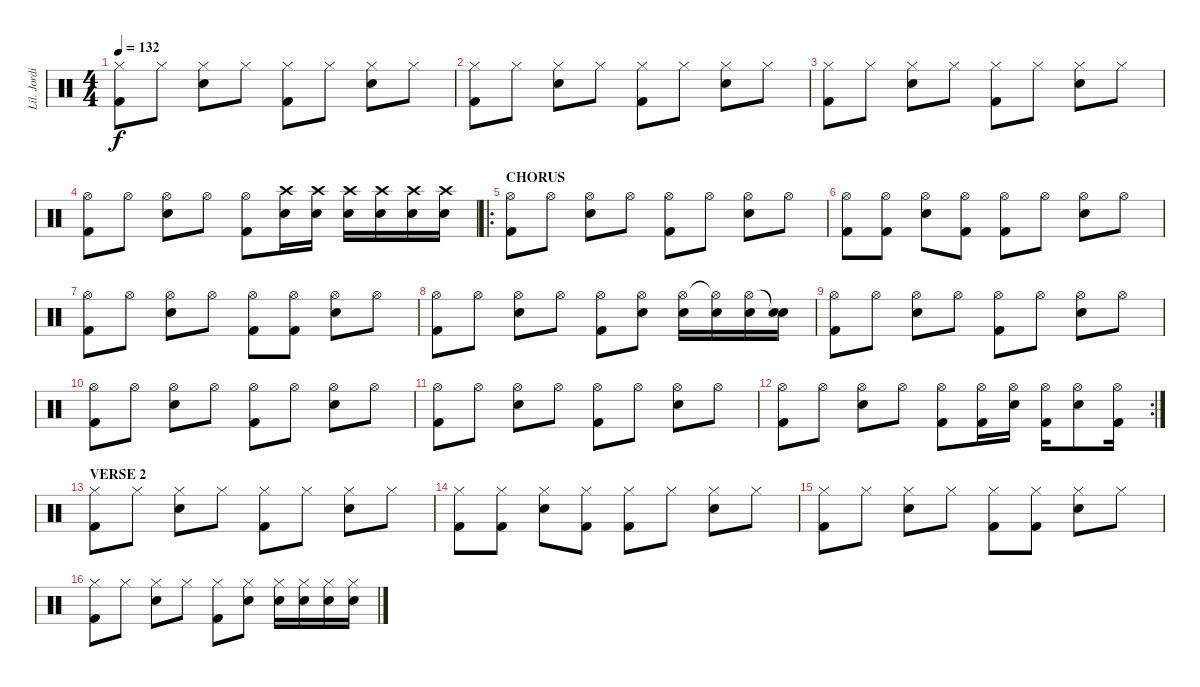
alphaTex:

\track ("Lil. Jordison" "Lil. Jordi") {instrument percussion}
\staff {score}
\articulation defaults
\ts (4 4)
\tempo 132
\clef neutral
\ks c
("Hi-Hat (closed)" "Kick (hit) 2").8{dy f} "Hi-Hat (closed)".8 ("Hi-Hat (closed)" "Electric Snare (hit)").8 "Hi-Hat (closed)".8 ("Hi-Hat (closed)" "Kick (hit) 2").8 "Hi-Hat (closed)".8 ("Hi-Hat (closed)" "Electric Snare (hit)").8 "Hi-Hat (closed)".8 |
("Hi-Hat (closed)" "Kick (hit) 2").8 "Hi-Hat (closed)".8 ("Hi-Hat (closed)" "Electric Snare (hit)").8 "Hi-Hat (closed)".8 ("Hi-Hat (closed)" "Kick (hit) 2").8 "Hi-Hat (closed)".8 ("Hi-Hat (closed)" "Electric Snare (hit)").8 "Hi-Hat (closed)".8 |
("Hi-Hat (closed)" "Kick (hit) 2").8 "Hi-Hat (closed)".8 ("Hi-Hat (closed)" "Electric Snare (hit)").8 "Hi-Hat (closed)".8 ("Hi-Hat (closed)" "Kick (hit) 2").8 "Hi-Hat (closed)".8 ("Hi-Hat (closed)" "Electric Snare (hit)").8 "Hi-Hat (closed)".8 |
("Hi-Hat (open)" "Kick (hit) 2").8 "Hi-Hat (open)".8 ("Hi-Hat (open)" "Electric Snare (hit)").8 "Hi-Hat (open)".8 ("Hi-Hat (open)" "Kick (hit) 2").8 ("Crash high (hit)" "Electric Snare (hit)").16 ("Crash high (hit)" "Electric Snare (hit)").16 ("Crash high (hit)" "Electric Snare (hit)").16 ("Crash high (hit)" "Electric Snare (hit)").16 ("Crash high (hit)" "Electric Snare (hit)").16 ("Crash high (hit)" "Electric Snare (hit)").16 |
\ro
\section ("" "CHORUS")
("Hi-Hat (open)" "Kick (hit) 2").8 "Hi-Hat (open)".8 ("Hi-Hat (open)" "Electric Snare (hit)").8 "Hi-Hat (open)".8 ("Hi-Hat (open)" "Kick (hit) 2").8 "Hi-Hat (open)".8 ("Hi-Hat (open)" "Electric Snare (hit)").8 "Hi-Hat (open)".8 |
("Hi-Hat (open)" "Kick (hit) 2").8 ("Hi-Hat (open)" "Kick (hit) 2").8 ("Hi-Hat (open)" "Electric Snare (hit)").8 ("Hi-Hat (open)" "Kick (hit) 2").8 ("Hi-Hat (open)" "Kick (hit) 2").8 "Hi-Hat (open)".8 ("Hi-Hat (open)" "Electric Snare (hit)").8 "Hi-Hat (open)".8 |
("Hi-Hat (open)" "Kick (hit) 2").8 "Hi-Hat (open)".8 ("Hi-Hat (open)" "Electric Snare (hit)").8 "Hi-Hat (open)".8 ("Hi-Hat (open)" "Kick (hit) 2").8 ("Hi-Hat (open)" "Kick (hit) 2").8 ("Hi-Hat (open)" "Electric Snare (hit)").8 "Hi-Hat (open)".8 |
("Hi-Hat (open)" "Kick (hit) 2").8 "Hi-Hat (open)".8 ("Hi-Hat (open)" "Electric Snare (hit)").8 "Hi-Hat (open)".8 ("Hi-Hat (open)" "Kick (hit) 2").8 ("Hi-Hat (open)" "Electric Snare (hit)").8 ("Hi-Hat (open)" "Electric Snare (hit)").16 ("Hi-Hat (open)"{t} "Electric Snare (hit)").16 ("Hi-Hat (open)" "Electric Snare (hit)").16 ("Snare (hit)"{t} "Electric Snare (hit)").16 |
("Hi-Hat (open)" "Kick (hit) 2").8 "Hi-Hat (open)".8 ("Hi-Hat (open)" "Electric Snare (hit)").8 "Hi-Hat (open)".8 ("Hi-Hat (open)" "Kick (hit) 2").8 "Hi-Hat (open)".8 ("Hi-Hat (open)" "Electric Snare (hit)").8 "Hi-Hat (open)".8 |
("Hi-Hat (open)" "Kick (hit) 2").8 "Hi-Hat (open)".8 ("Hi-Hat (open)" "Electric Snare (hit)").8 "Hi-Hat (open)".8 ("Hi-Hat (open)" "Kick (hit) 2").8 "Hi-Hat (open)".8 ("Hi-Hat (open)" "Electric Snare (hit)").8 "Hi-Hat (open)".8 |
("Hi-Hat (open)" "Kick (hit) 2").8 "Hi-Hat (open)".8 ("Hi-Hat (open)" "Electric Snare (hit)").8 "Hi-Hat (open)".8 ("Hi-Hat (open)" "Kick (hit) 2").8 "Hi-Hat (open)".8 ("Hi-Hat (open)" "Electric Snare (hit)").8 "Hi-Hat (open)".8 |
\rc 2
("Hi-Hat (open)" "Kick (hit) 2").8 "Hi-Hat (open)".8 ("Hi-Hat (open)" "Electric Snare (hit)").8 "Hi-Hat (open)".8 ("Hi-Hat (open)" "Kick (hit) 2").8 ("Hi-Hat (open)" "Kick (hit) 2").16 ("Hi-Hat (open)" "Electric Snare (hit)").16 ("Hi-Hat (open)" "Kick (hit) 2").16 ("Hi-Hat (open)" "Electric Snare (hit)").8 ("Hi-Hat (open)" "Kick (hit) 2").16 |
\section ("" "VERSE 2")
("Hi-Hat (closed)" "Kick (hit) 2").8 "Hi-Hat (closed)".8 ("Hi-Hat (closed)" "Electric Snare (hit)").8 "Hi-Hat (closed)".8 ("Hi-Hat (closed)" "Kick (hit) 2").8 "Hi-Hat (closed)".8 ("Hi-Hat (closed)" "Electric Snare (hit)").8 "Hi-Hat (closed)".8 |
("Hi-Hat (closed)" "Kick (hit) 2").8 ("Hi-Hat (closed)" "Kick (hit) 2").8 ("Hi-Hat (closed)" "Electric Snare (hit)").8 ("Hi-Hat (closed)" "Kick (hit) 2").8 ("Hi-Hat (closed)" "Kick (hit) 2").8 "Hi-Hat (closed)".8 ("Hi-Hat (closed)" "Electric Snare (hit)").8 "Hi-Hat (closed)".8 |
("Hi-Hat (closed)" "Kick (hit) 2").8 "Hi-Hat (closed)".8 ("Hi-Hat (closed)" "Electric Snare (hit)").8 "Hi-Hat (closed)".8 ("Hi-Hat (closed)" "Kick (hit) 2").8 ("Hi-Hat (closed)" "Kick (hit) 2").8 ("Hi-Hat (closed)" "Electric Snare (hit)").8 "Hi-Hat (closed)".8 |
("Hi-Hat (closed)" "Kick (hit) 2").8 "Hi-Hat (closed)".8 ("Hi-Hat (closed)" "Electric Snare (hit)").8 "Hi-Hat (closed)".8 ("Hi-Hat (closed)" "Kick (hit) 2").8 ("Hi-Hat (closed)" "Electric Snare (hit)").8 ("Hi-Hat (closed)" "Electric Snare (hit)").16 ("Hi-Hat (closed)" "Electric Snare (hit)").16 ("Hi-Hat (closed)" "Electric Snare (hit)").16 ("Hi-Hat (closed)" "Electric Snare (hit)").16
